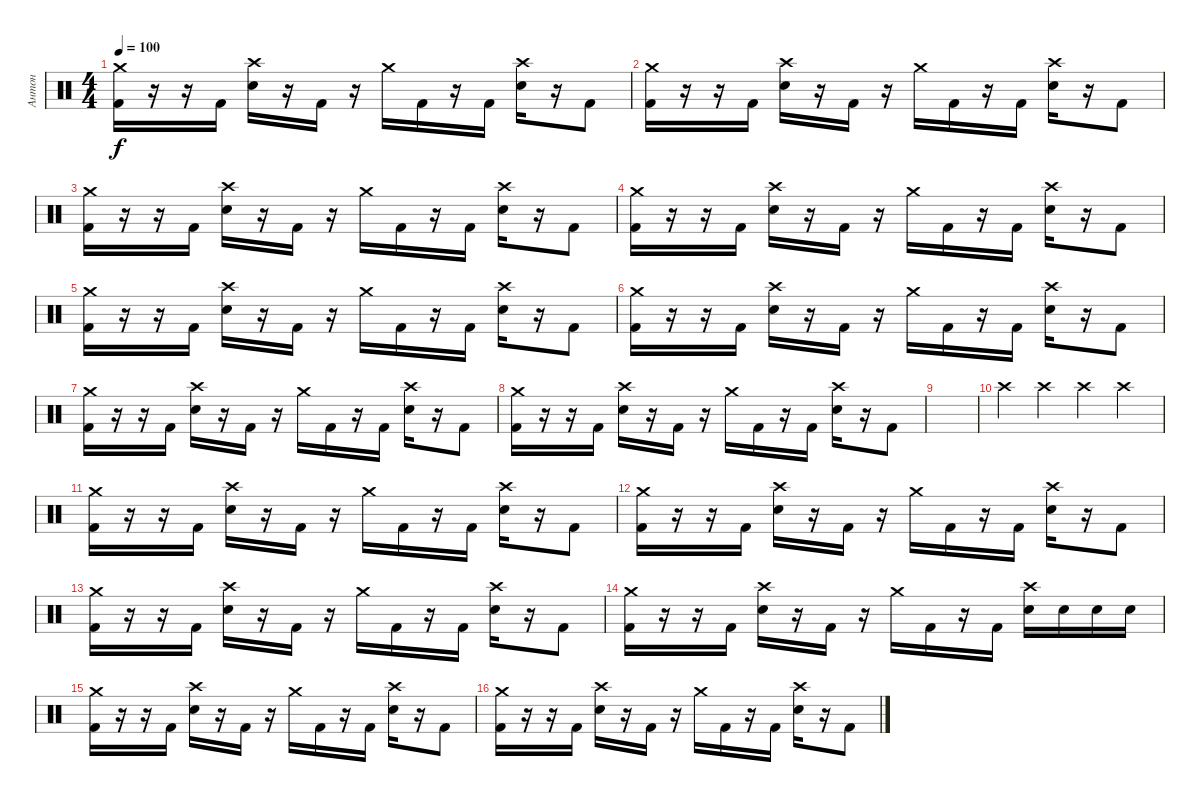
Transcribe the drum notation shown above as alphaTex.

\track ("Антон" "Антон") {instrument percussion}
\staff {score}
\articulation defaults
\ts (4 4)
\tempo 100
\clef neutral
\ks c
("Crash medium (hit)" "Kick (hit) 2").16{dy f} r.16 r.16 "Kick (hit) 2".16 ("Crash high (hit)" "Electric Snare (hit)").16 r.16 "Kick (hit) 2".16 r.16 "Crash medium (hit)".16 "Kick (hit) 2".16 r.16 "Kick (hit) 2".16 ("Crash high (hit)" "Electric Snare (hit)").16 r.16 "Kick (hit) 2".8 |
("Crash medium (hit)" "Kick (hit) 2").16 r.16 r.16 "Kick (hit) 2".16 ("Crash high (hit)" "Electric Snare (hit)").16 r.16 "Kick (hit) 2".16 r.16 "Crash medium (hit)".16 "Kick (hit) 2".16 r.16 "Kick (hit) 2".16 ("Crash high (hit)" "Electric Snare (hit)").16 r.16 "Kick (hit) 2".8 |
("Crash medium (hit)" "Kick (hit) 2").16 r.16 r.16 "Kick (hit) 2".16 ("Crash high (hit)" "Electric Snare (hit)").16 r.16 "Kick (hit) 2".16 r.16 "Crash medium (hit)".16 "Kick (hit) 2".16 r.16 "Kick (hit) 2".16 ("Crash high (hit)" "Electric Snare (hit)").16 r.16 "Kick (hit) 2".8 |
("Crash medium (hit)" "Kick (hit) 2").16 r.16 r.16 "Kick (hit) 2".16 ("Crash high (hit)" "Electric Snare (hit)").16 r.16 "Kick (hit) 2".16 r.16 "Crash medium (hit)".16 "Kick (hit) 2".16 r.16 "Kick (hit) 2".16 ("Crash high (hit)" "Electric Snare (hit)").16 r.16 "Kick (hit) 2".8 |
("Crash medium (hit)" "Kick (hit) 2").16 r.16 r.16 "Kick (hit) 2".16 ("Crash high (hit)" "Electric Snare (hit)").16 r.16 "Kick (hit) 2".16 r.16 "Crash medium (hit)".16 "Kick (hit) 2".16 r.16 "Kick (hit) 2".16 ("Crash high (hit)" "Electric Snare (hit)").16 r.16 "Kick (hit) 2".8 |
("Crash medium (hit)" "Kick (hit) 2").16 r.16 r.16 "Kick (hit) 2".16 ("Crash high (hit)" "Electric Snare (hit)").16 r.16 "Kick (hit) 2".16 r.16 "Crash medium (hit)".16 "Kick (hit) 2".16 r.16 "Kick (hit) 2".16 ("Crash high (hit)" "Electric Snare (hit)").16 r.16 "Kick (hit) 2".8 |
("Crash medium (hit)" "Kick (hit) 2").16 r.16 r.16 "Kick (hit) 2".16 ("Crash high (hit)" "Electric Snare (hit)").16 r.16 "Kick (hit) 2".16 r.16 "Crash medium (hit)".16 "Kick (hit) 2".16 r.16 "Kick (hit) 2".16 ("Crash high (hit)" "Electric Snare (hit)").16 r.16 "Kick (hit) 2".8 |
("Crash medium (hit)" "Kick (hit) 2").16 r.16 r.16 "Kick (hit) 2".16 ("Crash high (hit)" "Electric Snare (hit)").16 r.16 "Kick (hit) 2".16 r.16 "Crash medium (hit)".16 "Kick (hit) 2".16 r.16 "Kick (hit) 2".16 ("Crash high (hit)" "Electric Snare (hit)").16 r.16 "Kick (hit) 2".8 |
|
"Crash high (hit)".4 "Crash high (hit)".4 "Crash high (hit)".4 "Crash high (hit)".4 |
("Crash medium (hit)" "Kick (hit) 2").16 r.16 r.16 "Kick (hit) 2".16 ("Crash high (hit)" "Electric Snare (hit)").16 r.16 "Kick (hit) 2".16 r.16 "Crash medium (hit)".16 "Kick (hit) 2".16 r.16 "Kick (hit) 2".16 ("Crash high (hit)" "Electric Snare (hit)").16 r.16 "Kick (hit) 2".8 |
("Crash medium (hit)" "Kick (hit) 2").16 r.16 r.16 "Kick (hit) 2".16 ("Crash high (hit)" "Electric Snare (hit)").16 r.16 "Kick (hit) 2".16 r.16 "Crash medium (hit)".16 "Kick (hit) 2".16 r.16 "Kick (hit) 2".16 ("Crash high (hit)" "Electric Snare (hit)").16 r.16 "Kick (hit) 2".8 |
("Crash medium (hit)" "Kick (hit) 2").16 r.16 r.16 "Kick (hit) 2".16 ("Crash high (hit)" "Electric Snare (hit)").16 r.16 "Kick (hit) 2".16 r.16 "Crash medium (hit)".16 "Kick (hit) 2".16 r.16 "Kick (hit) 2".16 ("Crash high (hit)" "Electric Snare (hit)").16 r.16 "Kick (hit) 2".8 |
("Crash medium (hit)" "Kick (hit) 2").16 r.16 r.16 "Kick (hit) 2".16 ("Crash high (hit)" "Electric Snare (hit)").16 r.16 "Kick (hit) 2".16 r.16 "Crash medium (hit)".16 "Kick (hit) 2".16 r.16 "Kick (hit) 2".16 ("Crash high (hit)" "Electric Snare (hit)").16 "Electric Snare (hit)".16 "Electric Snare (hit)".16 "Electric Snare (hit)".16 |
("Crash medium (hit)" "Kick (hit) 2").16 r.16 r.16 "Kick (hit) 2".16 ("Crash high (hit)" "Electric Snare (hit)").16 r.16 "Kick (hit) 2".16 r.16 "Crash medium (hit)".16 "Kick (hit) 2".16 r.16 "Kick (hit) 2".16 ("Crash high (hit)" "Electric Snare (hit)").16 r.16 "Kick (hit) 2".8 |
("Crash medium (hit)" "Kick (hit) 2").16 r.16 r.16 "Kick (hit) 2".16 ("Crash high (hit)" "Electric Snare (hit)").16 r.16 "Kick (hit) 2".16 r.16 "Crash medium (hit)".16 "Kick (hit) 2".16 r.16 "Kick (hit) 2".16 ("Crash high (hit)" "Electric Snare (hit)").16 r.16 "Kick (hit) 2".8
